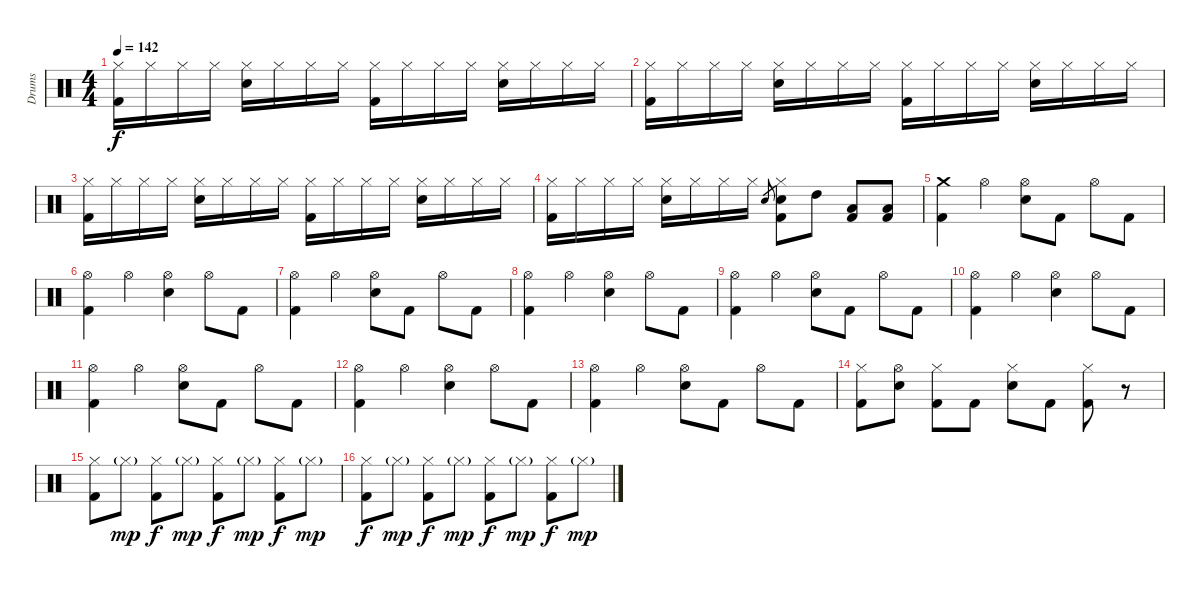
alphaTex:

\track ("Drums" "Drums") {instrument percussion}
\staff {score}
\articulation defaults
\ts (4 4)
\tempo 142
\clef neutral
\ks c
("Hi-Hat (closed)" "Kick (hit) 2").16{dy f} "Hi-Hat (closed)".16 "Hi-Hat (closed)".16 "Hi-Hat (closed)".16 ("Hi-Hat (closed)" "Electric Snare (hit)").16 "Hi-Hat (closed)".16 "Hi-Hat (closed)".16 "Hi-Hat (closed)".16 ("Hi-Hat (closed)" "Kick (hit) 2").16 "Hi-Hat (closed)".16 "Hi-Hat (closed)".16 "Hi-Hat (closed)".16 ("Hi-Hat (closed)" "Electric Snare (hit)").16 "Hi-Hat (closed)".16 "Hi-Hat (closed)".16 "Hi-Hat (closed)".16 |
("Hi-Hat (closed)" "Kick (hit) 2").16 "Hi-Hat (closed)".16 "Hi-Hat (closed)".16 "Hi-Hat (closed)".16 ("Hi-Hat (closed)" "Electric Snare (hit)").16 "Hi-Hat (closed)".16 "Hi-Hat (closed)".16 "Hi-Hat (closed)".16 ("Hi-Hat (closed)" "Kick (hit) 2").16 "Hi-Hat (closed)".16 "Hi-Hat (closed)".16 "Hi-Hat (closed)".16 ("Hi-Hat (closed)" "Electric Snare (hit)").16 "Hi-Hat (closed)".16 "Hi-Hat (closed)".16 "Hi-Hat (closed)".16 |
("Hi-Hat (closed)" "Kick (hit) 2").16 "Hi-Hat (closed)".16 "Hi-Hat (closed)".16 "Hi-Hat (closed)".16 ("Hi-Hat (closed)" "Electric Snare (hit)").16 "Hi-Hat (closed)".16 "Hi-Hat (closed)".16 "Hi-Hat (closed)".16 ("Hi-Hat (closed)" "Kick (hit) 2").16 "Hi-Hat (closed)".16 "Hi-Hat (closed)".16 "Hi-Hat (closed)".16 ("Hi-Hat (closed)" "Electric Snare (hit)").16 "Hi-Hat (closed)".16 "Hi-Hat (closed)".16 "Hi-Hat (closed)".16 |
("Hi-Hat (closed)" "Kick (hit) 2").16 "Hi-Hat (closed)".16 "Hi-Hat (closed)".16 "Hi-Hat (closed)".16 ("Hi-Hat (closed)" "Electric Snare (hit)").16 "Hi-Hat (closed)".16 "Hi-Hat (closed)".16 "Hi-Hat (closed)".16 "Electric Snare (hit)".8{gr} ("Hi-Hat (closed)" "Electric Snare (hit)" "Kick (hit) 2").8 "High Tom (hit)".8 ("Low Floor Tom (hit)" "Kick (hit) 2").8 ("Low Floor Tom (hit)" "Kick (hit) 2").8 |
("Crash medium (hit)" "Kick (hit) 2").4 "Hi-Hat (open)".4 ("Hi-Hat (open)" "Electric Snare (hit)").8 "Kick (hit) 2".8 "Hi-Hat (open)".8 "Kick (hit) 2".8 |
("Hi-Hat (open)" "Kick (hit) 2").4 "Hi-Hat (open)".4 ("Hi-Hat (open)" "Electric Snare (hit)").4 "Hi-Hat (open)".8 "Kick (hit) 2".8 |
("Hi-Hat (open)" "Kick (hit) 2").4 "Hi-Hat (open)".4 ("Hi-Hat (open)" "Electric Snare (hit)").8 "Kick (hit) 2".8 "Hi-Hat (open)".8 "Kick (hit) 2".8 |
("Hi-Hat (open)" "Kick (hit) 2").4 "Hi-Hat (open)".4 ("Hi-Hat (open)" "Electric Snare (hit)").4 "Hi-Hat (open)".8 "Kick (hit) 2".8 |
("Hi-Hat (open)" "Kick (hit) 2").4 "Hi-Hat (open)".4 ("Hi-Hat (open)" "Electric Snare (hit)").8 "Kick (hit) 2".8 "Hi-Hat (open)".8 "Kick (hit) 2".8 |
("Hi-Hat (open)" "Kick (hit) 2").4 "Hi-Hat (open)".4 ("Hi-Hat (open)" "Electric Snare (hit)").4 "Hi-Hat (open)".8 "Kick (hit) 2".8 |
("Hi-Hat (open)" "Kick (hit) 2").4 "Hi-Hat (open)".4 ("Hi-Hat (open)" "Electric Snare (hit)").8 "Kick (hit) 2".8 "Hi-Hat (open)".8 "Kick (hit) 2".8 |
("Hi-Hat (open)" "Kick (hit) 2").4 "Hi-Hat (open)".4 ("Hi-Hat (open)" "Electric Snare (hit)").4 "Hi-Hat (open)".8 "Kick (hit) 2".8 |
("Hi-Hat (open)" "Kick (hit) 2").4 "Hi-Hat (open)".4 ("Hi-Hat (open)" "Electric Snare (hit)").8 "Kick (hit) 2".8 "Hi-Hat (open)".8 "Kick (hit) 2".8 |
("Hi-Hat (closed)" "Kick (hit) 2").8 ("Hi-Hat (open)" "Electric Snare (hit)").8 ("Hi-Hat (closed)" "Kick (hit) 2").8 "Kick (hit) 2".8 ("Hi-Hat (closed)" "Electric Snare (hit)").8 "Kick (hit) 2".8 ("Hi-Hat (closed)" "Kick (hit) 2").8 r.8 |
("Hi-Hat (closed)" "Kick (hit) 2").8 "Hi-Hat (closed)"{g}.8{dy mp} ("Hi-Hat (closed)" "Kick (hit) 2").8{dy f} "Hi-Hat (closed)"{g}.8{dy mp} ("Hi-Hat (closed)" "Kick (hit) 2").8{dy f} "Hi-Hat (closed)"{g}.8{dy mp} ("Hi-Hat (closed)" "Kick (hit) 2").8{dy f} "Hi-Hat (closed)"{g}.8{dy mp} |
("Hi-Hat (closed)" "Kick (hit) 2").8{dy f} "Hi-Hat (closed)"{g}.8{dy mp} ("Hi-Hat (closed)" "Kick (hit) 2").8{dy f} "Hi-Hat (closed)"{g}.8{dy mp} ("Hi-Hat (closed)" "Kick (hit) 2").8{dy f} "Hi-Hat (closed)"{g}.8{dy mp} ("Hi-Hat (closed)" "Kick (hit) 2").8{dy f} "Hi-Hat (closed)"{g}.8{dy mp}
